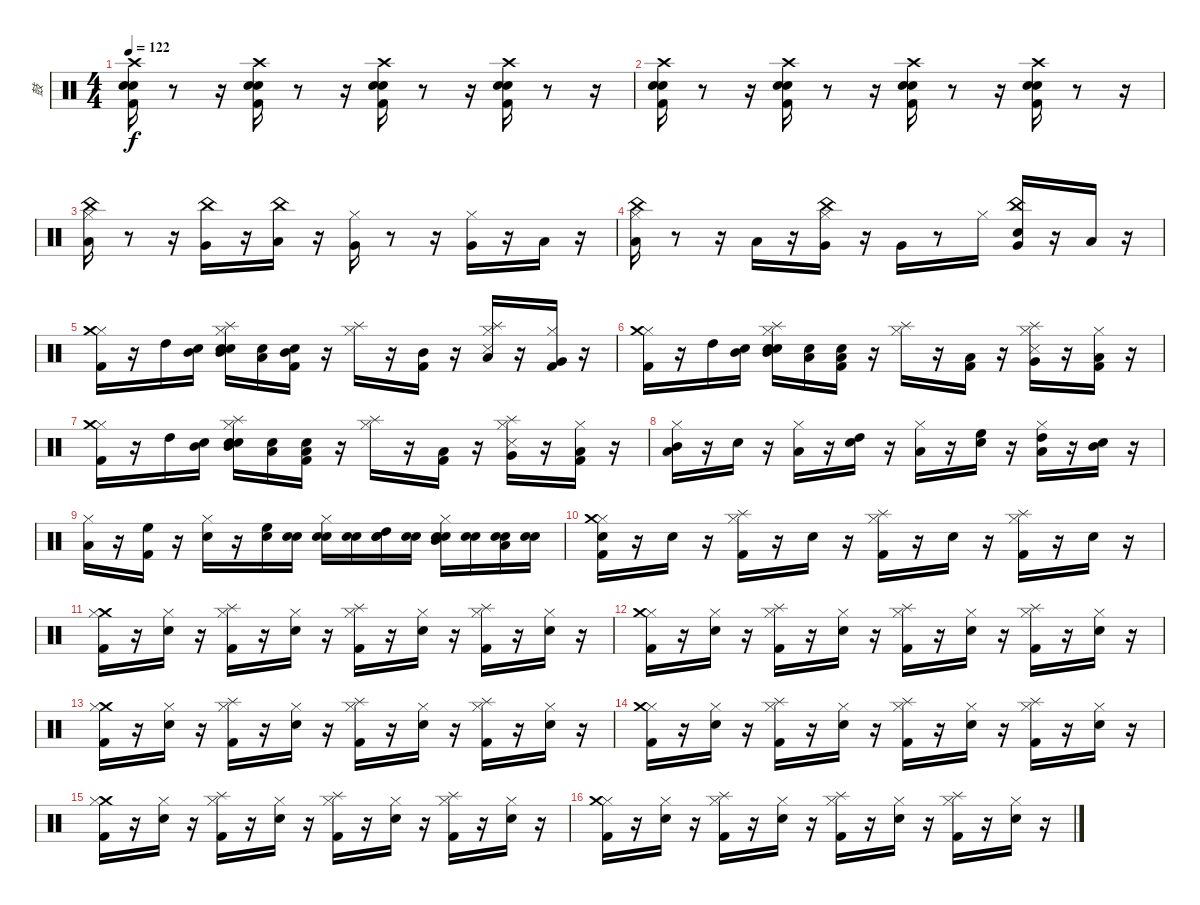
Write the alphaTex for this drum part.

\track ("鼓" "鼓") {instrument percussion}
\staff {score}
\articulation defaults
\ts (4 4)
\tempo 122
\clef neutral
\ks c
("Crash high (hit)" "Kick (hit) 2" "Snare (hit) 2" "Electric Snare (hit)").16{dy f} r.8 r.16 ("Crash high (hit)" "Kick (hit) 2" "Snare (hit) 2" "Electric Snare (hit)").16 r.8 r.16 ("Crash high (hit)" "Kick (hit) 2" "Snare (hit) 2" "Electric Snare (hit)").16 r.8 r.16 ("Crash high (hit)" "Kick (hit) 2" "Snare (hit) 2" "Electric Snare (hit)").16 r.8 r.16 |
("Crash high (hit)" "Kick (hit) 2" "Snare (hit) 2" "Electric Snare (hit)").16 r.8 r.16 ("Crash high (hit)" "Kick (hit) 2" "Snare (hit) 2" "Electric Snare (hit)").16 r.8 r.16 ("Crash high (hit)" "Kick (hit) 2" "Snare (hit) 2" "Electric Snare (hit)").16 r.8 r.16 ("Crash high (hit)" "Kick (hit) 2" "Snare (hit) 2" "Electric Snare (hit)").16 r.8 r.16 |
("Low Tom (hit)" "Hi-Hat (closed)" "China (hit)").16 r.8 r.16 ("China (hit)" "Very Low Tom (hit)").16 r.16 ("Low Floor Tom (hit)" "China (hit)").16 r.16 ("Hi-Hat (closed)" "Very Low Tom (hit)").16 r.8 r.16 ("Very Low Tom (hit)" "Hi-Hat (closed)").16 r.16 "Low Floor Tom (hit)".16 r.16 |
("Low Tom (hit)" "China (hit)" "Hi-Hat (closed)").16 r.8 r.16 "Low Tom (hit)".16 r.16 ("Hi-Hat (closed)" "Very Low Tom (hit)" "China (hit)").16 r.16 "Very Low Tom (hit)".16 r.8 "Hi-Hat (closed)".16 ("Snare (hit)" "Very Low Tom (hit)" "China (hit)").16 r.16 "Low Floor Tom (hit)".16 r.16 |
("Kick (hit) 2" "Hi-Hat (closed)" "Crash medium (hit)").16 r.16 "High Tom (hit)".16 ("Snare (hit)" "Mid Tom (hit)").16 ("Snare (hit)" "Splash (hit)" "Snare (hit) 2" "Hi-Hat (closed)" "Mid Tom (hit)").16 ("Snare (hit)" "Low Tom (hit)").16 ("Snare (hit)" "Kick (hit) 2" "Mid Tom (hit)").16 r.16 ("Hi-Hat (closed)" "Splash (hit)").16 r.16 ("Kick (hit) 2" "Mid Tom (hit)").16 r.16 ("Hi-Hat (closed)" "Low Tom (hit)" "Snare (side stick) 3" "Splash (hit)").16 r.16 ("Kick (hit) 2" "Very Low Tom (hit)" "Hi-Hat (closed)").16 r.16 |
("Hi-Hat (closed)" "Kick (hit) 2" "Crash medium (hit)").16 r.16 "High Tom (hit)".16 ("Snare (hit)" "Mid Tom (hit)").16 ("Snare (hit)" "Snare (hit) 2" "Hi-Hat (closed)" "Mid Tom (hit)" "Splash (hit)").16 ("Snare (hit)" "Low Tom (hit)").16 ("Snare (hit)" "Low Tom (hit)" "Kick (hit) 2").16 r.16 ("Hi-Hat (closed)" "Splash (hit)").16 r.16 ("Kick (hit) 2" "Low Tom (hit)").16 r.16 ("Hi-Hat (closed)" "Very Low Tom (hit)" "Snare (side stick) 3" "Splash (hit)").16 r.16 ("Kick (hit) 2" "Low Floor Tom (hit)" "Hi-Hat (closed)").16 r.16 |
("Hi-Hat (closed)" "Kick (hit) 2" "Crash medium (hit)").16 r.16 "High Tom (hit)".16 ("Snare (hit)" "Mid Tom (hit)").16 ("Snare (hit)" "Snare (hit) 2" "Hi-Hat (closed)" "Mid Tom (hit)" "Splash (hit)").16 ("Snare (hit)" "Low Tom (hit)").16 ("Snare (hit)" "Low Tom (hit)" "Kick (hit) 2").16 r.16 ("Hi-Hat (closed)" "Splash (hit)").16 r.16 ("Kick (hit) 2" "Low Tom (hit)").16 r.16 ("Hi-Hat (closed)" "Very Low Tom (hit)" "Snare (side stick) 3" "Splash (hit)").16 r.16 ("Kick (hit) 2" "Low Floor Tom (hit)" "Hi-Hat (closed)").16 r.16 |
("Low Floor Tom (hit)" "Hi-Hat (closed)" "Mid Tom (hit)").16 r.16 "Snare (hit) 2".16 r.16 ("Hi-Hat (closed)" "Low Floor Tom (hit)").16 r.16 ("Snare (hit) 2" "High Tom (hit)").16 r.16 ("Hi-Hat (closed)" "Low Floor Tom (hit)").16 r.16 ("Snare (hit) 2" "High Floor Tom (hit)").16 r.16 ("High Tom (hit)" "Low Floor Tom (hit)" "Hi-Hat (closed)").16 r.16 ("Mid Tom (hit)" "Snare (hit) 2").16 r.16 |
("Hi-Hat (closed)" "Low Floor Tom (hit)").16 r.16 ("Kick (hit) 2" "High Floor Tom (hit)").16 r.16 ("Hi-Hat (closed)" "Snare (hit) 2").16 r.16 ("High Floor Tom (hit)" "Snare (hit) 2").16 ("Snare (hit)" "Snare (hit) 2").16 ("Snare (hit)" "Hi-Hat (closed)" "Snare (hit) 2").16 ("Snare (hit)" "Snare (hit) 2").16 ("Snare (hit)" "High Tom (hit)" "Snare (hit) 2").16 ("Snare (hit)" "Snare (hit) 2").16 ("Snare (hit)" "Hi-Hat (closed)" "Snare (hit) 2" "Mid Tom (hit)").16 ("Snare (hit)" "Snare (hit) 2").16 ("Snare (hit)" "Snare (hit) 2" "Low Tom (hit)").16 ("Snare (hit)" "Snare (hit) 2").16 |
("Snare (hit)" "Kick (hit) 2" "Hi-Hat (closed)" "Crash medium (hit)").16 r.16 "Snare (hit) 2".16 r.16 ("Kick (hit) 2" "Hi-Hat (closed)" "Splash (hit)").16 r.16 "Snare (hit) 2".16 r.16 ("Kick (hit) 2" "Splash (hit)" "Hi-Hat (closed)").16 r.16 "Snare (hit) 2".16 r.16 ("Kick (hit) 2" "Hi-Hat (closed)" "Splash (hit)").16 r.16 "Snare (hit) 2".16 r.16 |
("Crash medium (hit)" "Kick (hit) 2" "Hi-Hat (closed)").16 r.16 ("Snare (hit) 2" "Hi-Hat (closed)").16 r.16 ("Kick (hit) 2" "Hi-Hat (closed)" "Splash (hit)").16 r.16 ("Snare (hit) 2" "Hi-Hat (closed)").16 r.16 ("Kick (hit) 2" "Hi-Hat (closed)" "Splash (hit)").16 r.16 ("Snare (hit) 2" "Hi-Hat (closed)").16 r.16 ("Kick (hit) 2" "Hi-Hat (closed)" "Splash (hit)").16 r.16 ("Snare (hit) 2" "Hi-Hat (closed)").16 r.16 |
("Kick (hit) 2" "Hi-Hat (closed)" "Crash medium (hit)").16 r.16 ("Snare (hit) 2" "Hi-Hat (closed)").16 r.16 ("Kick (hit) 2" "Hi-Hat (closed)" "Splash (hit)").16 r.16 ("Snare (hit) 2" "Hi-Hat (closed)").16 r.16 ("Kick (hit) 2" "Hi-Hat (closed)" "Splash (hit)").16 r.16 ("Snare (hit) 2" "Hi-Hat (closed)").16 r.16 ("Kick (hit) 2" "Splash (hit)" "Hi-Hat (closed)").16 r.16 ("Snare (hit) 2" "Hi-Hat (closed)").16 r.16 |
("Kick (hit) 2" "Crash medium (hit)" "Hi-Hat (closed)").16 r.16 ("Snare (hit) 2" "Hi-Hat (closed)").16 r.16 ("Kick (hit) 2" "Hi-Hat (closed)" "Splash (hit)").16 r.16 ("Snare (hit) 2" "Hi-Hat (closed)").16 r.16 ("Kick (hit) 2" "Hi-Hat (closed)" "Splash (hit)").16 r.16 ("Snare (hit) 2" "Hi-Hat (closed)").16 r.16 ("Kick (hit) 2" "Hi-Hat (closed)" "Splash (hit)").16 r.16 ("Hi-Hat (closed)" "Snare (hit) 2").16 r.16 |
("Kick (hit) 2" "Hi-Hat (closed)" "Crash medium (hit)").16 r.16 ("Snare (hit) 2" "Hi-Hat (closed)").16 r.16 ("Kick (hit) 2" "Hi-Hat (closed)" "Splash (hit)").16 r.16 ("Snare (hit) 2" "Hi-Hat (closed)").16 r.16 ("Kick (hit) 2" "Hi-Hat (closed)" "Splash (hit)").16 r.16 ("Snare (hit) 2" "Hi-Hat (closed)").16 r.16 ("Kick (hit) 2" "Splash (hit)" "Hi-Hat (closed)").16 r.16 ("Snare (hit) 2" "Hi-Hat (closed)").16 r.16 |
("Kick (hit) 2" "Crash medium (hit)" "Hi-Hat (closed)").16 r.16 ("Snare (hit) 2" "Hi-Hat (closed)").16 r.16 ("Kick (hit) 2" "Splash (hit)" "Hi-Hat (closed)").16 r.16 ("Snare (hit) 2" "Hi-Hat (closed)").16 r.16 ("Hi-Hat (closed)" "Kick (hit) 2" "Splash (hit)").16 r.16 ("Snare (hit) 2" "Hi-Hat (closed)").16 r.16 ("Splash (hit)" "Kick (hit) 2" "Hi-Hat (closed)").16 r.16 ("Snare (hit) 2" "Hi-Hat (closed)").16 r.16 |
("Kick (hit) 2" "Hi-Hat (closed)" "Crash medium (hit)").16 r.16 ("Snare (hit) 2" "Hi-Hat (closed)").16 r.16 ("Splash (hit)" "Kick (hit) 2" "Hi-Hat (closed)").16 r.16 ("Snare (hit) 2" "Hi-Hat (closed)").16 r.16 ("Kick (hit) 2" "Hi-Hat (closed)" "Splash (hit)").16 r.16 ("Snare (hit) 2" "Hi-Hat (closed)").16 r.16 ("Hi-Hat (closed)" "Splash (hit)" "Kick (hit) 2").16 r.16 ("Hi-Hat (closed)" "Snare (hit) 2").16 r.16
